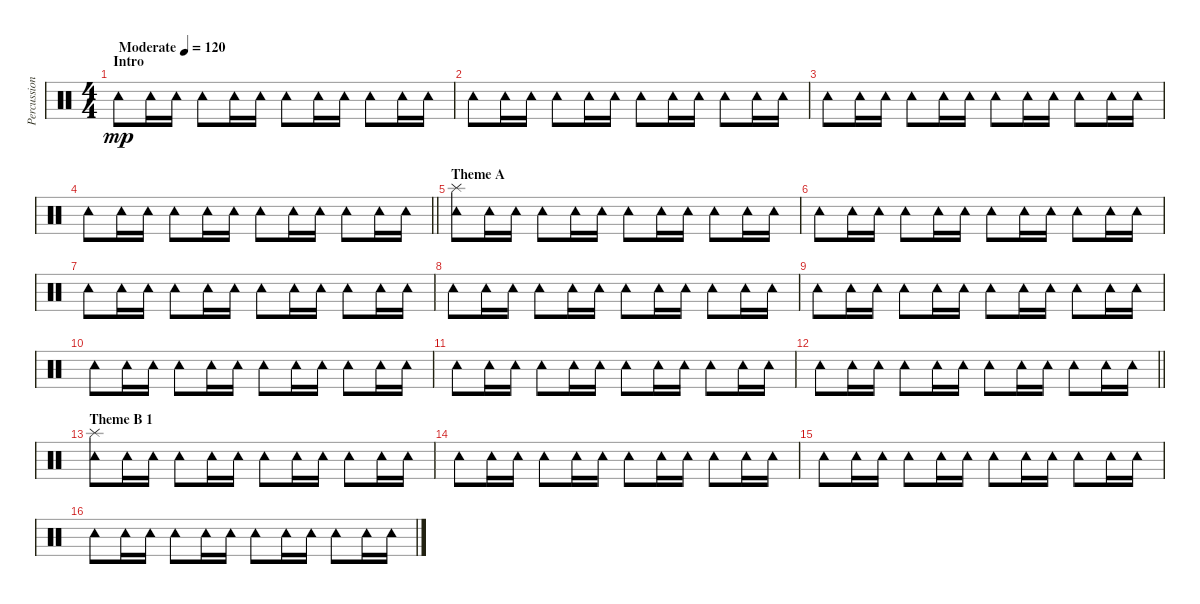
\track ("Percussion 2" "Percussion") {instrument percussion}
\staff {score}
\articulation defaults
\ts (4 4)
\section ("" "Intro")
\tempo (120 "Moderate")
\clef neutral
\ks c "Tambourine (hit)".8{dy mp} "Tambourine (hit)".16 "Tambourine (hit)".16 "Tambourine (hit)".8 "Tambourine (hit)".16 "Tambourine (hit)".16 "Tambourine (hit)".8 "Tambourine (hit)".16 "Tambourine (hit)".16 "Tambourine (hit)".8 "Tambourine (hit)".16 "Tambourine (hit)".16
|
"Tambourine (hit)".8 "Tambourine (hit)".16 "Tambourine (hit)".16 "Tambourine (hit)".8 "Tambourine (hit)".16 "Tambourine (hit)".16 "Tambourine (hit)".8 "Tambourine (hit)".16 "Tambourine (hit)".16 "Tambourine (hit)".8 "Tambourine (hit)".16 "Tambourine (hit)".16 |
"Tambourine (hit)".8 "Tambourine (hit)".16 "Tambourine (hit)".16 "Tambourine (hit)".8 "Tambourine (hit)".16 "Tambourine (hit)".16 "Tambourine (hit)".8 "Tambourine (hit)".16 "Tambourine (hit)".16 "Tambourine (hit)".8 "Tambourine (hit)".16 "Tambourine (hit)".16 |
\barLineRight lightlight "Tambourine (hit)".8 "Tambourine (hit)".16 "Tambourine (hit)".16 "Tambourine (hit)".8 "Tambourine (hit)".16 "Tambourine (hit)".16 "Tambourine (hit)".8 "Tambourine (hit)".16 "Tambourine (hit)".16 "Tambourine (hit)".8 "Tambourine (hit)".16 "Tambourine (hit)".16
|
\section ("" "Theme A")
("Tambourine (hit)" "Splash (hit)").8 "Tambourine (hit)".16 "Tambourine (hit)".16 "Tambourine (hit)".8 "Tambourine (hit)".16 "Tambourine (hit)".16 "Tambourine (hit)".8 "Tambourine (hit)".16 "Tambourine (hit)".16 "Tambourine (hit)".8 "Tambourine (hit)".16 "Tambourine (hit)".16 |
"Tambourine (hit)".8 "Tambourine (hit)".16 "Tambourine (hit)".16 "Tambourine (hit)".8 "Tambourine (hit)".16 "Tambourine (hit)".16 "Tambourine (hit)".8 "Tambourine (hit)".16 "Tambourine (hit)".16 "Tambourine (hit)".8 "Tambourine (hit)".16 "Tambourine (hit)".16 |
"Tambourine (hit)".8 "Tambourine (hit)".16 "Tambourine (hit)".16 "Tambourine (hit)".8 "Tambourine (hit)".16 "Tambourine (hit)".16 "Tambourine (hit)".8 "Tambourine (hit)".16 "Tambourine (hit)".16 "Tambourine (hit)".8 "Tambourine (hit)".16 "Tambourine (hit)".16 |
"Tambourine (hit)".8 "Tambourine (hit)".16 "Tambourine (hit)".16 "Tambourine (hit)".8 "Tambourine (hit)".16 "Tambourine (hit)".16 "Tambourine (hit)".8 "Tambourine (hit)".16 "Tambourine (hit)".16 "Tambourine (hit)".8 "Tambourine (hit)".16 "Tambourine (hit)".16 |
"Tambourine (hit)".8 "Tambourine (hit)".16 "Tambourine (hit)".16 "Tambourine (hit)".8 "Tambourine (hit)".16 "Tambourine (hit)".16 "Tambourine (hit)".8 "Tambourine (hit)".16 "Tambourine (hit)".16 "Tambourine (hit)".8 "Tambourine (hit)".16 "Tambourine (hit)".16 |
"Tambourine (hit)".8 "Tambourine (hit)".16 "Tambourine (hit)".16 "Tambourine (hit)".8 "Tambourine (hit)".16 "Tambourine (hit)".16 "Tambourine (hit)".8 "Tambourine (hit)".16 "Tambourine (hit)".16 "Tambourine (hit)".8 "Tambourine (hit)".16 "Tambourine (hit)".16 |
"Tambourine (hit)".8 "Tambourine (hit)".16 "Tambourine (hit)".16 "Tambourine (hit)".8 "Tambourine (hit)".16 "Tambourine (hit)".16 "Tambourine (hit)".8 "Tambourine (hit)".16 "Tambourine (hit)".16 "Tambourine (hit)".8 "Tambourine (hit)".16 "Tambourine (hit)".16 |
\barLineRight lightlight "Tambourine (hit)".8 "Tambourine (hit)".16 "Tambourine (hit)".16 "Tambourine (hit)".8 "Tambourine (hit)".16 "Tambourine (hit)".16 "Tambourine (hit)".8 "Tambourine (hit)".16 "Tambourine (hit)".16 "Tambourine (hit)".8 "Tambourine (hit)".16 "Tambourine (hit)".16
|
\section ("" "Theme B 1")
("Tambourine (hit)" "Splash (hit)").8 "Tambourine (hit)".16 "Tambourine (hit)".16 "Tambourine (hit)".8 "Tambourine (hit)".16 "Tambourine (hit)".16 "Tambourine (hit)".8 "Tambourine (hit)".16 "Tambourine (hit)".16 "Tambourine (hit)".8 "Tambourine (hit)".16 "Tambourine (hit)".16 |
"Tambourine (hit)".8 "Tambourine (hit)".16 "Tambourine (hit)".16 "Tambourine (hit)".8 "Tambourine (hit)".16 "Tambourine (hit)".16 "Tambourine (hit)".8 "Tambourine (hit)".16 "Tambourine (hit)".16 "Tambourine (hit)".8 "Tambourine (hit)".16 "Tambourine (hit)".16 |
"Tambourine (hit)".8 "Tambourine (hit)".16 "Tambourine (hit)".16 "Tambourine (hit)".8 "Tambourine (hit)".16 "Tambourine (hit)".16 "Tambourine (hit)".8 "Tambourine (hit)".16 "Tambourine (hit)".16 "Tambourine (hit)".8 "Tambourine (hit)".16 "Tambourine (hit)".16 |
"Tambourine (hit)".8 "Tambourine (hit)".16 "Tambourine (hit)".16 "Tambourine (hit)".8 "Tambourine (hit)".16 "Tambourine (hit)".16 "Tambourine (hit)".8 "Tambourine (hit)".16 "Tambourine (hit)".16 "Tambourine (hit)".8 "Tambourine (hit)".16 "Tambourine (hit)".16
